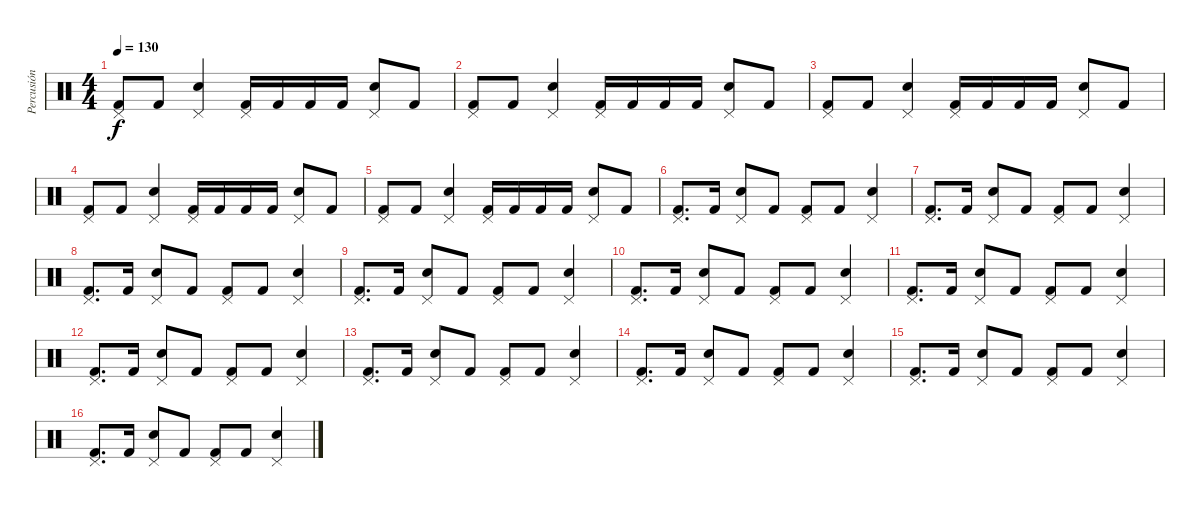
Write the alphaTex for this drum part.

\track ("Percusión" "Percusión") {solo instrument percussion}
\staff {score}
\articulation defaults
\ts (4 4)
\tempo 130
\clef neutral
\ks c
("Kick (hit) 2" "Pedal Hi-Hat (hit)").8{dy f} "Kick (hit) 2".8 ("Electric Snare (hit)" "Pedal Hi-Hat (hit)").4 ("Kick (hit) 2" "Pedal Hi-Hat (hit)").16 "Kick (hit) 2".16 "Kick (hit) 2".16 "Kick (hit) 2".16 ("Electric Snare (hit)" "Pedal Hi-Hat (hit)").8 "Kick (hit) 2".8 |
("Kick (hit) 2" "Pedal Hi-Hat (hit)").8 "Kick (hit) 2".8 ("Electric Snare (hit)" "Pedal Hi-Hat (hit)").4 ("Kick (hit) 2" "Pedal Hi-Hat (hit)").16 "Kick (hit) 2".16 "Kick (hit) 2".16 "Kick (hit) 2".16 ("Electric Snare (hit)" "Pedal Hi-Hat (hit)").8 "Kick (hit) 2".8 |
("Kick (hit) 2" "Pedal Hi-Hat (hit)").8 "Kick (hit) 2".8 ("Electric Snare (hit)" "Pedal Hi-Hat (hit)").4 ("Kick (hit) 2" "Pedal Hi-Hat (hit)").16 "Kick (hit) 2".16 "Kick (hit) 2".16 "Kick (hit) 2".16 ("Electric Snare (hit)" "Pedal Hi-Hat (hit)").8 "Kick (hit) 2".8 |
("Kick (hit) 2" "Pedal Hi-Hat (hit)").8 "Kick (hit) 2".8 ("Electric Snare (hit)" "Pedal Hi-Hat (hit)").4 ("Kick (hit) 2" "Pedal Hi-Hat (hit)").16 "Kick (hit) 2".16 "Kick (hit) 2".16 "Kick (hit) 2".16 ("Electric Snare (hit)" "Pedal Hi-Hat (hit)").8 "Kick (hit) 2".8 |
("Kick (hit) 2" "Pedal Hi-Hat (hit)").8 "Kick (hit) 2".8 ("Electric Snare (hit)" "Pedal Hi-Hat (hit)").4 ("Kick (hit) 2" "Pedal Hi-Hat (hit)").16 "Kick (hit) 2".16 "Kick (hit) 2".16 "Kick (hit) 2".16 ("Electric Snare (hit)" "Pedal Hi-Hat (hit)").8 "Kick (hit) 2".8 |
("Kick (hit) 2" "Pedal Hi-Hat (hit)").8{d} "Kick (hit) 2".16 ("Electric Snare (hit)" "Pedal Hi-Hat (hit)").8 "Kick (hit) 2".8 ("Kick (hit) 2" "Pedal Hi-Hat (hit)").8 "Kick (hit) 2".8 ("Electric Snare (hit)" "Pedal Hi-Hat (hit)").4 |
("Kick (hit) 2" "Pedal Hi-Hat (hit)").8{d} "Kick (hit) 2".16 ("Electric Snare (hit)" "Pedal Hi-Hat (hit)").8 "Kick (hit) 2".8 ("Kick (hit) 2" "Pedal Hi-Hat (hit)").8 "Kick (hit) 2".8 ("Electric Snare (hit)" "Pedal Hi-Hat (hit)").4 |
("Kick (hit) 2" "Pedal Hi-Hat (hit)").8{d} "Kick (hit) 2".16 ("Electric Snare (hit)" "Pedal Hi-Hat (hit)").8 "Kick (hit) 2".8 ("Kick (hit) 2" "Pedal Hi-Hat (hit)").8 "Kick (hit) 2".8 ("Electric Snare (hit)" "Pedal Hi-Hat (hit)").4 |
("Kick (hit) 2" "Pedal Hi-Hat (hit)").8{d} "Kick (hit) 2".16 ("Electric Snare (hit)" "Pedal Hi-Hat (hit)").8 "Kick (hit) 2".8 ("Kick (hit) 2" "Pedal Hi-Hat (hit)").8 "Kick (hit) 2".8 ("Electric Snare (hit)" "Pedal Hi-Hat (hit)").4 |
("Kick (hit) 2" "Pedal Hi-Hat (hit)").8{d} "Kick (hit) 2".16 ("Electric Snare (hit)" "Pedal Hi-Hat (hit)").8 "Kick (hit) 2".8 ("Kick (hit) 2" "Pedal Hi-Hat (hit)").8 "Kick (hit) 2".8 ("Electric Snare (hit)" "Pedal Hi-Hat (hit)").4 |
("Kick (hit) 2" "Pedal Hi-Hat (hit)").8{d} "Kick (hit) 2".16 ("Electric Snare (hit)" "Pedal Hi-Hat (hit)").8 "Kick (hit) 2".8 ("Kick (hit) 2" "Pedal Hi-Hat (hit)").8 "Kick (hit) 2".8 ("Electric Snare (hit)" "Pedal Hi-Hat (hit)").4 |
("Kick (hit) 2" "Pedal Hi-Hat (hit)").8{d} "Kick (hit) 2".16 ("Electric Snare (hit)" "Pedal Hi-Hat (hit)").8 "Kick (hit) 2".8 ("Kick (hit) 2" "Pedal Hi-Hat (hit)").8 "Kick (hit) 2".8 ("Electric Snare (hit)" "Pedal Hi-Hat (hit)").4 |
("Kick (hit) 2" "Pedal Hi-Hat (hit)").8{d} "Kick (hit) 2".16 ("Electric Snare (hit)" "Pedal Hi-Hat (hit)").8 "Kick (hit) 2".8 ("Kick (hit) 2" "Pedal Hi-Hat (hit)").8 "Kick (hit) 2".8 ("Electric Snare (hit)" "Pedal Hi-Hat (hit)").4 |
("Kick (hit) 2" "Pedal Hi-Hat (hit)").8{d} "Kick (hit) 2".16 ("Electric Snare (hit)" "Pedal Hi-Hat (hit)").8 "Kick (hit) 2".8 ("Kick (hit) 2" "Pedal Hi-Hat (hit)").8 "Kick (hit) 2".8 ("Electric Snare (hit)" "Pedal Hi-Hat (hit)").4 |
("Kick (hit) 2" "Pedal Hi-Hat (hit)").8{d} "Kick (hit) 2".16 ("Electric Snare (hit)" "Pedal Hi-Hat (hit)").8 "Kick (hit) 2".8 ("Kick (hit) 2" "Pedal Hi-Hat (hit)").8 "Kick (hit) 2".8 ("Electric Snare (hit)" "Pedal Hi-Hat (hit)").4 |
("Kick (hit) 2" "Pedal Hi-Hat (hit)").8{d} "Kick (hit) 2".16 ("Electric Snare (hit)" "Pedal Hi-Hat (hit)").8 "Kick (hit) 2".8 ("Kick (hit) 2" "Pedal Hi-Hat (hit)").8 "Kick (hit) 2".8 ("Electric Snare (hit)" "Pedal Hi-Hat (hit)").4
